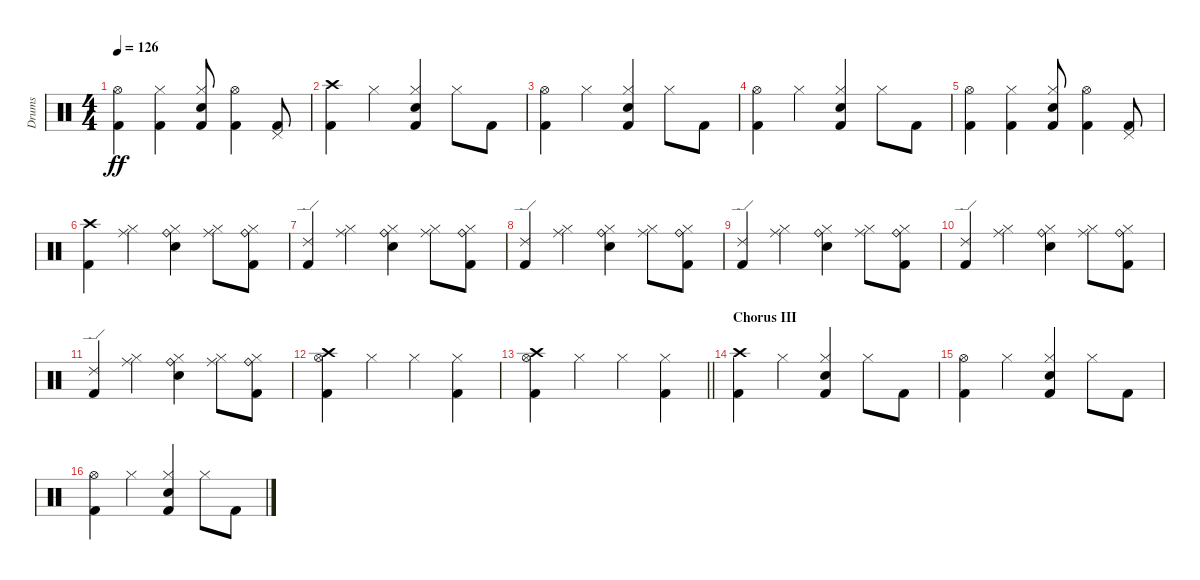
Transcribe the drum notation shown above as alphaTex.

\track ("Drums" "Drums") {instrument percussion}
\staff {score}
\articulation defaults
\ts (4 4)
\tempo 126
\clef neutral
\ks c
("Hi-Hat (open)" "Kick (hit) 2").4{dy ff} ("Hi-Hat (closed)" "Kick (hit) 2").4 ("Hi-Hat (closed)" "Snare (hit) 2" "Kick (hit) 2").8 ("Hi-Hat (open)" "Kick (hit) 2").4 ("Pedal Hi-Hat (hit)" "Kick (hit) 2").8 |
("Crash high (hit)" "Kick (hit) 2").4 "Hi-Hat (closed)".4 ("Hi-Hat (closed)" "Snare (hit) 2" "Kick (hit) 2").4 "Hi-Hat (closed)".8 "Kick (hit) 2".8 |
("Hi-Hat (open)" "Kick (hit) 2").4 "Hi-Hat (closed)".4 ("Hi-Hat (closed)" "Snare (hit) 2" "Kick (hit) 2").4 "Hi-Hat (closed)".8 "Kick (hit) 2".8 |
("Hi-Hat (open)" "Kick (hit) 2").4 "Hi-Hat (closed)".4 ("Hi-Hat (closed)" "Snare (hit) 2" "Kick (hit) 2").4 "Hi-Hat (closed)".8 "Kick (hit) 2".8 |
("Hi-Hat (open)" "Kick (hit) 2").4 ("Hi-Hat (closed)" "Kick (hit) 2").4 ("Hi-Hat (closed)" "Snare (hit) 2" "Kick (hit) 2").8 ("Hi-Hat (open)" "Kick (hit) 2").4 ("Pedal Hi-Hat (hit)" "Kick (hit) 2").8 |
("Crash high (hit)" "Kick (hit) 2").4 ("Ride (middle)" "Hi-Hat (closed)").4 ("Ride (bell)" "Hi-Hat (closed)" "Snare (hit) 2").4 ("Ride (middle)" "Hi-Hat (closed)").8 ("Ride (bell)" "Hi-Hat (closed)" "Kick (hit) 2").8 |
("Ride (edge) 2" "Kick (hit) 2").4 ("Ride (middle)" "Hi-Hat (closed)").4 ("Ride (bell)" "Hi-Hat (closed)" "Snare (hit) 2").4 ("Ride (middle)" "Hi-Hat (closed)").8 ("Ride (bell)" "Hi-Hat (closed)" "Kick (hit) 2").8 |
("Ride (edge) 2" "Kick (hit) 2").4 ("Ride (middle)" "Hi-Hat (closed)").4 ("Ride (bell)" "Hi-Hat (closed)" "Snare (hit) 2").4 ("Ride (middle)" "Hi-Hat (closed)").8 ("Ride (bell)" "Hi-Hat (closed)" "Kick (hit) 2").8 |
("Ride (edge) 2" "Kick (hit) 2").4 ("Ride (middle)" "Hi-Hat (closed)").4 ("Ride (bell)" "Hi-Hat (closed)" "Snare (hit) 2").4 ("Ride (middle)" "Hi-Hat (closed)").8 ("Ride (bell)" "Hi-Hat (closed)" "Kick (hit) 2").8 |
("Ride (edge) 2" "Kick (hit) 2").4 ("Ride (middle)" "Hi-Hat (closed)").4 ("Ride (bell)" "Hi-Hat (closed)" "Snare (hit) 2").4 ("Ride (middle)" "Hi-Hat (closed)").8 ("Ride (bell)" "Hi-Hat (closed)" "Kick (hit) 2").8 |
("Ride (edge) 2" "Kick (hit) 2").4 ("Ride (middle)" "Hi-Hat (closed)").4 ("Ride (bell)" "Hi-Hat (closed)" "Snare (hit) 2").4 ("Ride (middle)" "Hi-Hat (closed)").8 ("Ride (bell)" "Hi-Hat (closed)" "Kick (hit) 2").8 |
("Crash high (hit)" "Hi-Hat (open)" "Kick (hit) 2").4 "Hi-Hat (closed)".4 "Hi-Hat (closed)".4 ("Hi-Hat (closed)" "Kick (hit) 2").4 |
\barLineRight lightlight
("Crash high (hit)" "Hi-Hat (open)" "Kick (hit) 2").4 "Hi-Hat (closed)".4 "Hi-Hat (closed)".4 ("Hi-Hat (closed)" "Kick (hit) 2").4 |
\section ("" "Chorus III")
("Crash high (hit)" "Kick (hit) 2").4 "Hi-Hat (closed)".4 ("Hi-Hat (closed)" "Snare (hit) 2" "Kick (hit) 2").4 "Hi-Hat (closed)".8 "Kick (hit) 2".8 |
("Hi-Hat (open)" "Kick (hit) 2").4 "Hi-Hat (closed)".4 ("Hi-Hat (closed)" "Snare (hit) 2" "Kick (hit) 2").4 "Hi-Hat (closed)".8 "Kick (hit) 2".8 |
("Hi-Hat (open)" "Kick (hit) 2").4 "Hi-Hat (closed)".4 ("Hi-Hat (closed)" "Snare (hit) 2" "Kick (hit) 2").4 "Hi-Hat (closed)".8 "Kick (hit) 2".8
